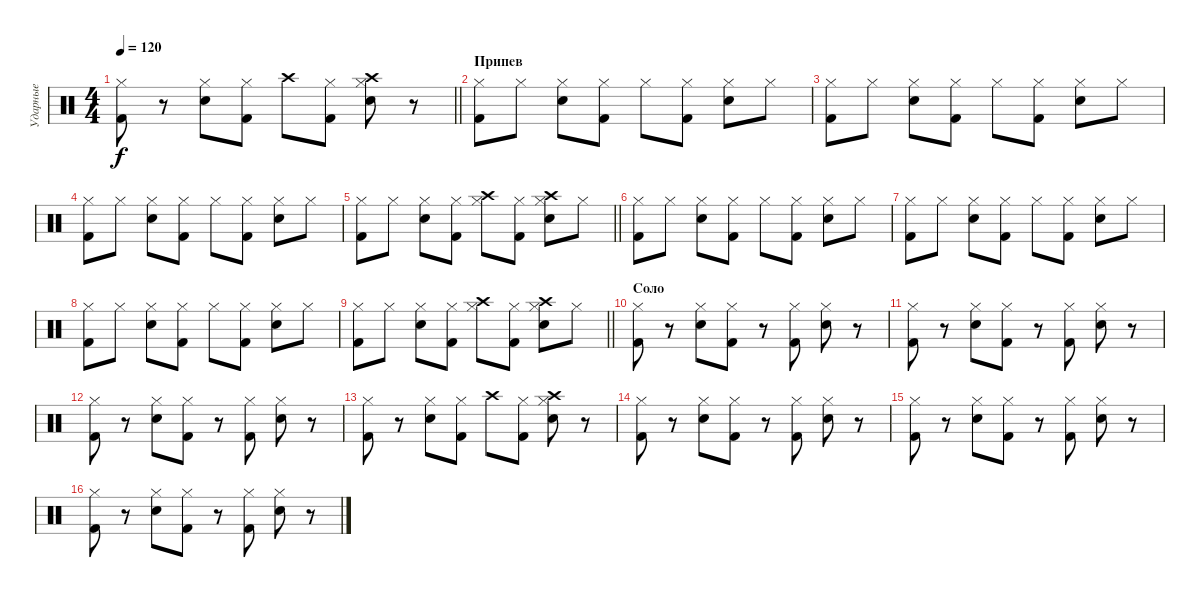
\track ("Ударные" "Ударные") {instrument percussion}
\staff {score}
\articulation defaults
\ts (4 4)
\tempo 120
\clef neutral
\barLineRight lightlight
\ks c
("Kick (hit) 2" "Hi-Hat (closed)").8{dy f} r.8 ("Snare (hit) 2" "Hi-Hat (closed)").8 ("Kick (hit) 2" "Hi-Hat (closed)").8 "Crash high (hit)".8 ("Kick (hit) 2" "Hi-Hat (closed)").8 ("Snare (hit) 2" "Hi-Hat (closed)" "Crash high (hit)").8 r.8 |
\section ("" "Припев")
("Kick (hit) 2" "Hi-Hat (closed)").8 "Hi-Hat (closed)".8 ("Snare (hit) 2" "Hi-Hat (closed)").8 ("Kick (hit) 2" "Hi-Hat (closed)").8 "Hi-Hat (closed)".8 ("Kick (hit) 2" "Hi-Hat (closed)").8 ("Snare (hit) 2" "Hi-Hat (closed)").8 "Hi-Hat (closed)".8 |
("Kick (hit) 2" "Hi-Hat (closed)").8 "Hi-Hat (closed)".8 ("Snare (hit) 2" "Hi-Hat (closed)").8 ("Kick (hit) 2" "Hi-Hat (closed)").8 "Hi-Hat (closed)".8 ("Kick (hit) 2" "Hi-Hat (closed)").8 ("Snare (hit) 2" "Hi-Hat (closed)").8 "Hi-Hat (closed)".8 |
("Kick (hit) 2" "Hi-Hat (closed)").8 "Hi-Hat (closed)".8 ("Snare (hit) 2" "Hi-Hat (closed)").8 ("Kick (hit) 2" "Hi-Hat (closed)").8 "Hi-Hat (closed)".8 ("Kick (hit) 2" "Hi-Hat (closed)").8 ("Snare (hit) 2" "Hi-Hat (closed)").8 "Hi-Hat (closed)".8 |
\barLineRight lightlight
("Kick (hit) 2" "Hi-Hat (closed)").8 "Hi-Hat (closed)".8 ("Snare (hit) 2" "Hi-Hat (closed)").8 ("Kick (hit) 2" "Hi-Hat (closed)").8 ("Hi-Hat (closed)" "Crash high (hit)").8 ("Kick (hit) 2" "Hi-Hat (closed)").8 ("Snare (hit) 2" "Hi-Hat (closed)" "Crash high (hit)").8 "Hi-Hat (closed)".8 |
("Kick (hit) 2" "Hi-Hat (closed)").8 "Hi-Hat (closed)".8 ("Snare (hit) 2" "Hi-Hat (closed)").8 ("Kick (hit) 2" "Hi-Hat (closed)").8 "Hi-Hat (closed)".8 ("Kick (hit) 2" "Hi-Hat (closed)").8 ("Snare (hit) 2" "Hi-Hat (closed)").8 "Hi-Hat (closed)".8 |
("Kick (hit) 2" "Hi-Hat (closed)").8 "Hi-Hat (closed)".8 ("Snare (hit) 2" "Hi-Hat (closed)").8 ("Kick (hit) 2" "Hi-Hat (closed)").8 "Hi-Hat (closed)".8 ("Kick (hit) 2" "Hi-Hat (closed)").8 ("Snare (hit) 2" "Hi-Hat (closed)").8 "Hi-Hat (closed)".8 |
("Kick (hit) 2" "Hi-Hat (closed)").8 "Hi-Hat (closed)".8 ("Snare (hit) 2" "Hi-Hat (closed)").8 ("Kick (hit) 2" "Hi-Hat (closed)").8 "Hi-Hat (closed)".8 ("Kick (hit) 2" "Hi-Hat (closed)").8 ("Snare (hit) 2" "Hi-Hat (closed)").8 "Hi-Hat (closed)".8 |
\barLineRight lightlight
("Kick (hit) 2" "Hi-Hat (closed)").8 "Hi-Hat (closed)".8 ("Snare (hit) 2" "Hi-Hat (closed)").8 ("Kick (hit) 2" "Hi-Hat (closed)").8 ("Hi-Hat (closed)" "Crash high (hit)").8 ("Kick (hit) 2" "Hi-Hat (closed)").8 ("Snare (hit) 2" "Hi-Hat (closed)" "Crash high (hit)").8 "Hi-Hat (closed)".8 |
\section ("" "Соло")
("Kick (hit) 2" "Hi-Hat (closed)").8 r.8 ("Snare (hit) 2" "Hi-Hat (closed)").8 ("Kick (hit) 2" "Hi-Hat (closed)").8 r.8 ("Kick (hit) 2" "Hi-Hat (closed)").8 ("Snare (hit) 2" "Hi-Hat (closed)").8 r.8 |
("Kick (hit) 2" "Hi-Hat (closed)").8 r.8 ("Snare (hit) 2" "Hi-Hat (closed)").8 ("Kick (hit) 2" "Hi-Hat (closed)").8 r.8 ("Kick (hit) 2" "Hi-Hat (closed)").8 ("Snare (hit) 2" "Hi-Hat (closed)").8 r.8 |
("Kick (hit) 2" "Hi-Hat (closed)").8 r.8 ("Snare (hit) 2" "Hi-Hat (closed)").8 ("Kick (hit) 2" "Hi-Hat (closed)").8 r.8 ("Kick (hit) 2" "Hi-Hat (closed)").8 ("Snare (hit) 2" "Hi-Hat (closed)").8 r.8 |
("Kick (hit) 2" "Hi-Hat (closed)").8 r.8 ("Snare (hit) 2" "Hi-Hat (closed)").8 ("Kick (hit) 2" "Hi-Hat (closed)").8 "Crash high (hit)".8 ("Kick (hit) 2" "Hi-Hat (closed)").8 ("Snare (hit) 2" "Hi-Hat (closed)" "Crash high (hit)").8 r.8 |
("Kick (hit) 2" "Hi-Hat (closed)").8 r.8 ("Snare (hit) 2" "Hi-Hat (closed)").8 ("Kick (hit) 2" "Hi-Hat (closed)").8 r.8 ("Kick (hit) 2" "Hi-Hat (closed)").8 ("Snare (hit) 2" "Hi-Hat (closed)").8 r.8 |
("Kick (hit) 2" "Hi-Hat (closed)").8 r.8 ("Snare (hit) 2" "Hi-Hat (closed)").8 ("Kick (hit) 2" "Hi-Hat (closed)").8 r.8 ("Kick (hit) 2" "Hi-Hat (closed)").8 ("Snare (hit) 2" "Hi-Hat (closed)").8 r.8 |
("Kick (hit) 2" "Hi-Hat (closed)").8 r.8 ("Snare (hit) 2" "Hi-Hat (closed)").8 ("Kick (hit) 2" "Hi-Hat (closed)").8 r.8 ("Kick (hit) 2" "Hi-Hat (closed)").8 ("Snare (hit) 2" "Hi-Hat (closed)").8 r.8
